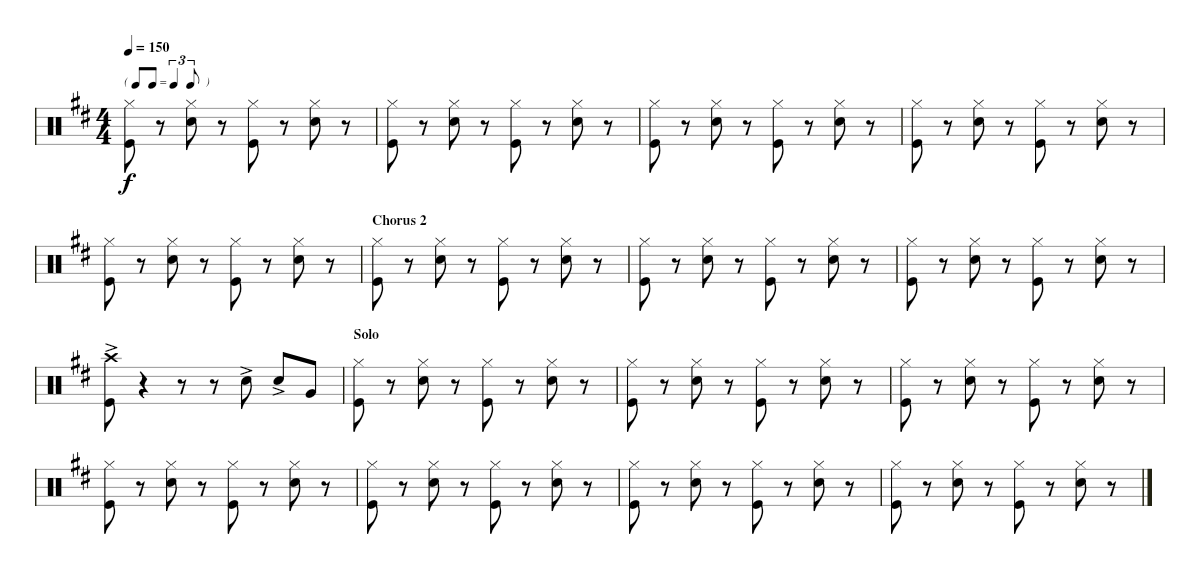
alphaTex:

\bracketExtendMode nobrackets
\singleTrackTrackNamePolicy hidden
\multiTrackTrackNamePolicy hidden
\firstSystemTrackNameMode fullname
\firstSystemTrackNameOrientation horizontal
\otherSystemsTrackNameOrientation horizontal
\defaultBarNumberDisplay Hide
\track ("Drumkit" "Drums") {instrument percussion}
\staff {score}
\articulation defaults
\ts (4 4)
\tf triplet8th
\tempo 150
\clef neutral
\ks d
("Kick (hit)" "Hi-Hat (closed)").8{dy f} r.8 ("Snare (hit) 2" "Hi-Hat (closed)").8 r.8 ("Kick (hit)" "Hi-Hat (closed)").8 r.8 ("Snare (hit) 2" "Hi-Hat (closed)").8 r.8 |
("Kick (hit)" "Hi-Hat (closed)").8 r.8 ("Snare (hit) 2" "Hi-Hat (closed)").8 r.8 ("Kick (hit)" "Hi-Hat (closed)").8 r.8 ("Snare (hit) 2" "Hi-Hat (closed)").8 r.8 |
("Kick (hit)" "Hi-Hat (closed)").8 r.8 ("Snare (hit) 2" "Hi-Hat (closed)").8 r.8 ("Kick (hit)" "Hi-Hat (closed)").8 r.8 ("Snare (hit) 2" "Hi-Hat (closed)").8 r.8 |
("Kick (hit)" "Hi-Hat (closed)").8 r.8 ("Snare (hit) 2" "Hi-Hat (closed)").8 r.8 ("Kick (hit)" "Hi-Hat (closed)").8 r.8 ("Snare (hit) 2" "Hi-Hat (closed)").8 r.8 |
("Kick (hit)" "Hi-Hat (closed)").8 r.8 ("Snare (hit) 2" "Hi-Hat (closed)").8 r.8 ("Kick (hit)" "Hi-Hat (closed)").8 r.8 ("Snare (hit) 2" "Hi-Hat (closed)").8 r.8 |
\section ("" "Chorus 2")
("Kick (hit)" "Hi-Hat (closed)").8 r.8 ("Snare (hit) 2" "Hi-Hat (closed)").8 r.8 ("Kick (hit)" "Hi-Hat (closed)").8 r.8 ("Snare (hit) 2" "Hi-Hat (closed)").8 r.8 |
("Kick (hit)" "Hi-Hat (closed)").8 r.8 ("Snare (hit) 2" "Hi-Hat (closed)").8 r.8 ("Kick (hit)" "Hi-Hat (closed)").8 r.8 ("Snare (hit) 2" "Hi-Hat (closed)").8 r.8 |
("Kick (hit)" "Hi-Hat (closed)").8 r.8 ("Snare (hit) 2" "Hi-Hat (closed)").8 r.8 ("Kick (hit)" "Hi-Hat (closed)").8 r.8 ("Snare (hit) 2" "Hi-Hat (closed)").8 r.8 |
("Kick (hit)"{ac} "Crash high (hit)").8 r.4 r.8 r.8 "Snare (hit) 2"{ac}.8 "Snare (hit) 2"{ac}.8 "Very Low Tom (hit)".8 |
\section ("" "Solo")
("Kick (hit)" "Hi-Hat (closed)").8 r.8 ("Snare (hit) 2" "Hi-Hat (closed)").8 r.8 ("Kick (hit)" "Hi-Hat (closed)").8 r.8 ("Snare (hit) 2" "Hi-Hat (closed)").8 r.8 |
("Kick (hit)" "Hi-Hat (closed)").8 r.8 ("Snare (hit) 2" "Hi-Hat (closed)").8 r.8 ("Kick (hit)" "Hi-Hat (closed)").8 r.8 ("Snare (hit) 2" "Hi-Hat (closed)").8 r.8 |
("Kick (hit)" "Hi-Hat (closed)").8 r.8 ("Snare (hit) 2" "Hi-Hat (closed)").8 r.8 ("Kick (hit)" "Hi-Hat (closed)").8 r.8 ("Snare (hit) 2" "Hi-Hat (closed)").8 r.8 |
("Kick (hit)" "Hi-Hat (closed)").8 r.8 ("Snare (hit) 2" "Hi-Hat (closed)").8 r.8 ("Kick (hit)" "Hi-Hat (closed)").8 r.8 ("Snare (hit) 2" "Hi-Hat (closed)").8 r.8 |
("Kick (hit)" "Hi-Hat (closed)").8 r.8 ("Snare (hit) 2" "Hi-Hat (closed)").8 r.8 ("Kick (hit)" "Hi-Hat (closed)").8 r.8 ("Snare (hit) 2" "Hi-Hat (closed)").8 r.8 |
("Kick (hit)" "Hi-Hat (closed)").8 r.8 ("Snare (hit) 2" "Hi-Hat (closed)").8 r.8 ("Kick (hit)" "Hi-Hat (closed)").8 r.8 ("Snare (hit) 2" "Hi-Hat (closed)").8 r.8 |
("Kick (hit)" "Hi-Hat (closed)").8 r.8 ("Snare (hit) 2" "Hi-Hat (closed)").8 r.8 ("Kick (hit)" "Hi-Hat (closed)").8 r.8 ("Snare (hit) 2" "Hi-Hat (closed)").8 r.8
